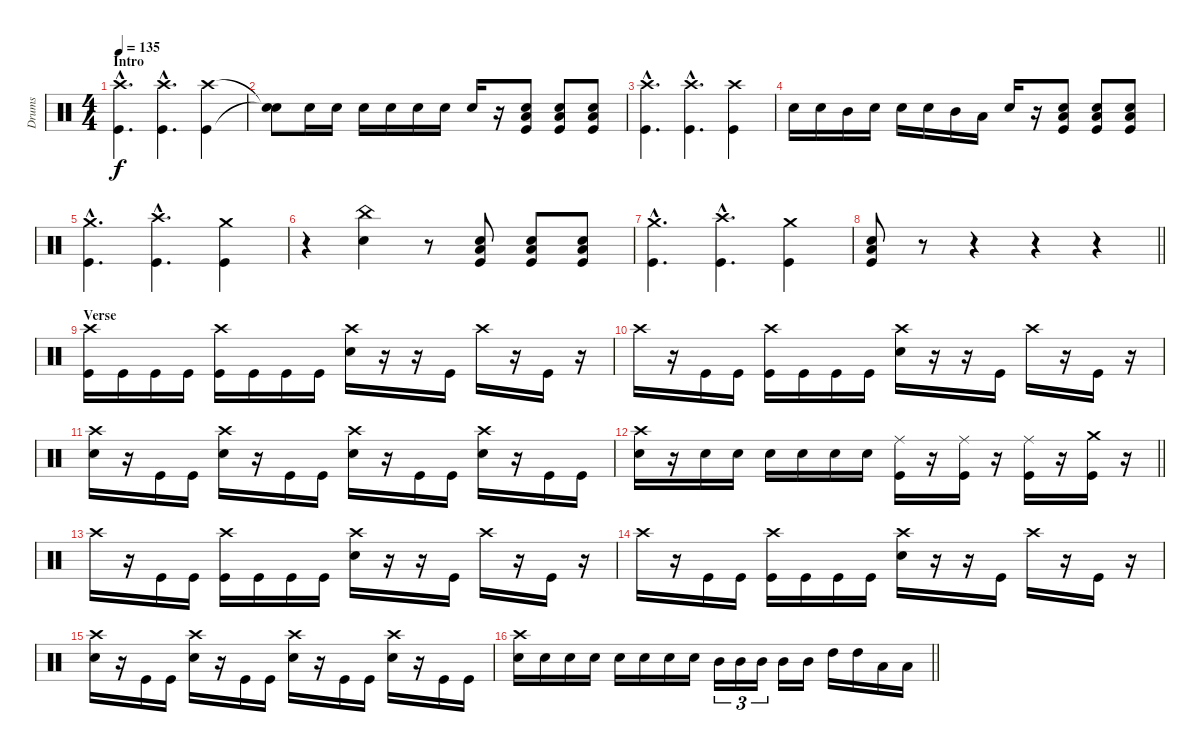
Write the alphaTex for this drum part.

\track ("Drums" "Drums") {instrument percussion}
\staff {score}
\articulation defaults
\ts (4 4)
\section ("" "Intro")
\tempo 135
\clef neutral
\ks c
("Crash high (hit)"{hac} "Kick (hit)"{hac}).4{d dy f} ("Crash high (hit)"{hac} "Kick (hit)"{hac}).4{d} ("Crash high (hit)" "Kick (hit)").4 |
("Snare (hit)"{t} "Snare (hit)"{t}).8 "Snare (hit) 2".16 "Snare (hit) 2".16 "Snare (hit) 2".16 "Snare (hit) 2".16 "Snare (hit) 2".16 "Snare (hit) 2".16 "Snare (hit) 2".16 r.16 ("Low Floor Tom (hit)" "Snare (hit) 2" "Kick (hit)").8 ("Low Floor Tom (hit)" "Snare (hit) 2" "Kick (hit)").8 ("Low Floor Tom (hit)" "Snare (hit) 2" "Kick (hit)").8 |
("Crash high (hit)"{hac} "Kick (hit)"{hac}).4{d} ("Crash high (hit)"{hac} "Kick (hit)"{hac}).4{d} ("Crash high (hit)" "Kick (hit)").4 |
"Snare (hit) 2".16 "Snare (hit) 2".16 "Mid Tom (hit)".16 "Snare (hit) 2".16 "Snare (hit) 2".16 "Snare (hit) 2".16 "Mid Tom (hit)".16 "Low Floor Tom (hit)".16 "Snare (hit) 2".16 r.16 ("Low Floor Tom (hit)" "Snare (hit) 2" "Kick (hit)").8 ("Low Floor Tom (hit)" "Snare (hit) 2" "Kick (hit)").8 ("Low Floor Tom (hit)" "Snare (hit) 2" "Kick (hit)").8 |
("Crash medium (hit)"{hac} "Kick (hit)"{hac}).4{d} ("Crash high (hit)"{hac} "Kick (hit)"{hac}).4{d} ("Crash medium (hit)" "Kick (hit)").4 |
r.4 ("China (hit)" "Snare (hit) 2").4 r.8 ("Low Floor Tom (hit)" "Snare (hit) 2" "Kick (hit)").8 ("Low Floor Tom (hit)" "Snare (hit) 2" "Kick (hit)").8 ("Low Floor Tom (hit)" "Snare (hit) 2" "Kick (hit)").8 |
("Crash medium (hit)"{hac} "Kick (hit)"{hac}).4{d} ("Crash high (hit)"{hac} "Kick (hit)"{hac}).4{d} ("Crash medium (hit)" "Kick (hit)").4 |
\barLineRight lightlight
("Low Floor Tom (hit)" "Snare (hit) 2" "Kick (hit)").8 r.8 r.4 r.4 r.4 |
\section ("" "Verse")
("Crash high (hit)" "Kick (hit)").16 "Kick (hit)".16 "Kick (hit)".16 "Kick (hit)".16 ("Crash high (hit)" "Kick (hit)").16 "Kick (hit)".16 "Kick (hit)".16 "Kick (hit)".16 ("Crash high (hit)" "Snare (hit) 2").16 r.16 r.16 "Kick (hit)".16 "Crash high (hit)".16 r.16 "Kick (hit)".16 r.16 |
"Crash high (hit)".16 r.16 "Kick (hit)".16 "Kick (hit)".16 ("Crash high (hit)" "Kick (hit)").16 "Kick (hit)".16 "Kick (hit)".16 "Kick (hit)".16 ("Crash high (hit)" "Snare (hit) 2").16 r.16 r.16 "Kick (hit)".16 "Crash high (hit)".16 r.16 "Kick (hit)".16 r.16 |
("Crash high (hit)" "Snare (hit) 2").16 r.16 "Kick (hit)".16 "Kick (hit)".16 ("Crash high (hit)" "Snare (hit) 2").16 r.16 "Kick (hit)".16 "Kick (hit)".16 ("Crash high (hit)" "Snare (hit) 2").16 r.16 "Kick (hit)".16 "Kick (hit)".16 ("Crash high (hit)" "Snare (hit) 2").16 r.16 "Kick (hit)".16 "Kick (hit)".16 |
\barLineRight lightlight
("Crash high (hit)" "Snare (hit) 2").16 r.16 "Snare (hit) 2".16 "Snare (hit) 2".16 "Snare (hit) 2".16 "Snare (hit) 2".16 "Snare (hit) 2".16 "Snare (hit) 2".16 ("Ride (middle)" "Kick (hit)").16 r.16 ("Ride (middle)" "Kick (hit)").16 r.16 ("Ride (middle)" "Kick (hit)").16 r.16 ("Crash medium (hit)" "Kick (hit)").16 r.16 |
"Crash high (hit)".16 r.16 "Kick (hit)".16 "Kick (hit)".16 ("Crash high (hit)" "Kick (hit)").16 "Kick (hit)".16 "Kick (hit)".16 "Kick (hit)".16 ("Crash high (hit)" "Snare (hit) 2").16 r.16 r.16 "Kick (hit)".16 "Crash high (hit)".16 r.16 "Kick (hit)".16 r.16 |
"Crash high (hit)".16 r.16 "Kick (hit)".16 "Kick (hit)".16 ("Crash high (hit)" "Kick (hit)").16 "Kick (hit)".16 "Kick (hit)".16 "Kick (hit)".16 ("Crash high (hit)" "Snare (hit) 2").16 r.16 r.16 "Kick (hit)".16 "Crash high (hit)".16 r.16 "Kick (hit)".16 r.16 |
("Crash high (hit)" "Snare (hit) 2").16 r.16 "Kick (hit)".16 "Kick (hit)".16 ("Crash high (hit)" "Snare (hit) 2").16 r.16 "Kick (hit)".16 "Kick (hit)".16 ("Crash high (hit)" "Snare (hit) 2").16 r.16 "Kick (hit)".16 "Kick (hit)".16 ("Crash high (hit)" "Snare (hit) 2").16 r.16 "Kick (hit)".16 "Kick (hit)".16 |
\barLineRight lightlight
("Crash high (hit)" "Snare (hit) 2").16 "Snare (hit) 2".16 "Snare (hit) 2".16 "Snare (hit) 2".16 "Snare (hit) 2".16 "Snare (hit) 2".16 "Snare (hit) 2".16 "Snare (hit) 2".16 "Mid Tom (hit)".16{tu (3 2)} "Mid Tom (hit)".16{tu (3 2)} "Mid Tom (hit)".16{tu (3 2)} "Mid Tom (hit)".16 "Mid Tom (hit)".16 "High Tom (hit)".16 "High Tom (hit)".16 "Low Floor Tom (hit)".16 "Low Floor Tom (hit)".16
